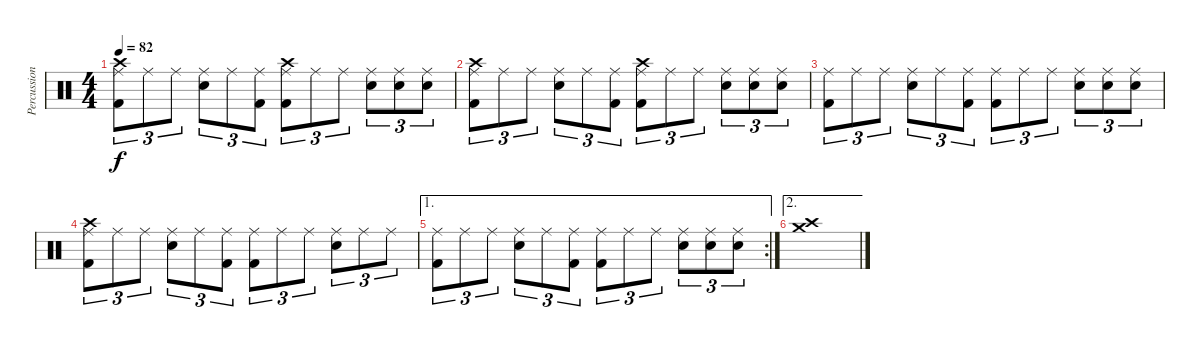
\track ("Percussion" "Percussion") {instrument percussion}
\staff {score}
\articulation defaults
\ts (4 4)
\tempo 82
\clef neutral
\ks c
("Ride (middle)" "Crash high (hit)" "Kick (hit) 2").8{tu (3 2) dy f} "Ride (middle)".8{tu (3 2)} "Ride (middle)".8{tu (3 2)} ("Ride (middle)" "Snare (hit) 2").8{tu (3 2)} "Ride (middle)".8{tu (3 2)} ("Ride (middle)" "Kick (hit) 2").8{tu (3 2)} ("Ride (middle)" "Crash high (hit)" "Kick (hit) 2").8{tu (3 2)} "Ride (middle)".8{tu (3 2)} "Ride (middle)".8{tu (3 2)} ("Ride (middle)" "Snare (hit) 2").8{tu (3 2)} ("Ride (middle)" "Snare (hit) 2").8{tu (3 2)} ("Ride (middle)" "Snare (hit) 2").8{tu (3 2)} |
("Ride (middle)" "Crash high (hit)" "Kick (hit) 2").8{tu (3 2)} "Ride (middle)".8{tu (3 2)} "Ride (middle)".8{tu (3 2)} ("Ride (middle)" "Snare (hit) 2").8{tu (3 2)} "Ride (middle)".8{tu (3 2)} ("Ride (middle)" "Kick (hit) 2").8{tu (3 2)} ("Ride (middle)" "Crash high (hit)" "Kick (hit) 2").8{tu (3 2)} "Ride (middle)".8{tu (3 2)} "Ride (middle)".8{tu (3 2)} ("Ride (middle)" "Snare (hit) 2").8{tu (3 2)} ("Ride (middle)" "Snare (hit) 2").8{tu (3 2)} ("Ride (middle)" "Snare (hit) 2").8{tu (3 2)} |
("Ride (middle)" "Kick (hit) 2").8{tu (3 2)} "Ride (middle)".8{tu (3 2)} "Ride (middle)".8{tu (3 2)} ("Ride (middle)" "Snare (hit) 2").8{tu (3 2)} "Ride (middle)".8{tu (3 2)} ("Ride (middle)" "Kick (hit) 2").8{tu (3 2)} ("Ride (middle)" "Kick (hit) 2").8{tu (3 2)} "Ride (middle)".8{tu (3 2)} "Ride (middle)".8{tu (3 2)} ("Ride (middle)" "Snare (hit) 2").8{tu (3 2)} ("Ride (middle)" "Snare (hit) 2").8{tu (3 2)} ("Ride (middle)" "Snare (hit) 2").8{tu (3 2)} |
("Ride (middle)" "Crash high (hit)" "Kick (hit) 2").8{tu (3 2)} "Ride (middle)".8{tu (3 2)} "Ride (middle)".8{tu (3 2)} ("Ride (middle)" "Snare (hit) 2").8{tu (3 2)} "Ride (middle)".8{tu (3 2)} ("Ride (middle)" "Kick (hit) 2").8{tu (3 2)} ("Ride (middle)" "Kick (hit) 2").8{tu (3 2)} "Ride (middle)".8{tu (3 2)} "Ride (middle)".8{tu (3 2)} ("Ride (middle)" "Snare (hit) 2").8{tu (3 2)} "Ride (middle)".8{tu (3 2)} "Ride (middle)".8{tu (3 2)} |
\ae 1
\rc 2
("Ride (middle)" "Kick (hit) 2").8{tu (3 2)} "Ride (middle)".8{tu (3 2)} "Ride (middle)".8{tu (3 2)} ("Ride (middle)" "Snare (hit) 2").8{tu (3 2)} "Ride (middle)".8{tu (3 2)} ("Ride (middle)" "Kick (hit) 2").8{tu (3 2)} ("Ride (middle)" "Kick (hit) 2").8{tu (3 2)} "Ride (middle)".8{tu (3 2)} "Ride (middle)".8{tu (3 2)} ("Ride (middle)" "Snare (hit) 2").8{tu (3 2)} ("Ride (middle)" "Snare (hit) 2").8{tu (3 2)} ("Ride (middle)" "Snare (hit) 2").8{tu (3 2)} |
\ae 2
("Crash high (hit)" "Crash medium (hit)").1
